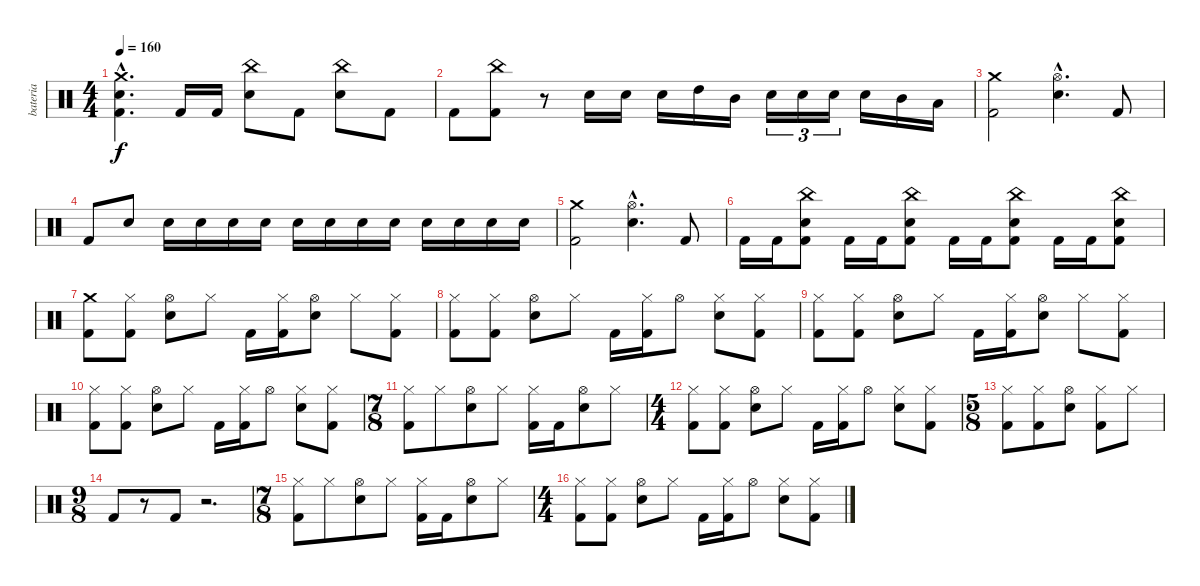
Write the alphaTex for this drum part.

\track ("bateria" "bateria") {instrument percussion}
\staff {score}
\articulation defaults
\ts (4 4)
\tempo 160
\clef neutral
\ks c
("Crash medium (hit)"{hac} "Electric Snare (hit)"{hac} "Kick (hit) 2"{hac}).4{d dy f} "Kick (hit) 2".16 "Kick (hit) 2".16 ("China (hit)" "Electric Snare (hit)").8 "Kick (hit) 2".8 ("China (hit)" "Electric Snare (hit)").8 "Kick (hit) 2".8 |
"Kick (hit) 2".8 ("China (hit)" "Kick (hit) 2").8 r.8 "Electric Snare (hit)".16 "Electric Snare (hit)".16 "Electric Snare (hit)".16 "High Tom (hit)".16 "Mid Tom (hit)".16 "Electric Snare (hit)".16{tu (3 2)} "Electric Snare (hit)".16{tu (3 2)} "Electric Snare (hit)".16{tu (3 2)} "Electric Snare (hit)".16 "Mid Tom (hit)".16 "Low Tom (hit)".16 |
("Crash medium (hit)" "Kick (hit) 2").2 ("Hi-Hat (open)"{hac} "Electric Snare (hit)"{hac}).4{d} "Kick (hit) 2".8 |
"Kick (hit) 2".8 "Electric Snare (hit)".8 "Electric Snare (hit)".16 "Electric Snare (hit)".16{volume 10} "Electric Snare (hit)".16 "Electric Snare (hit)".16{volume 15} "Electric Snare (hit)".16 "Electric Snare (hit)".16{volume 10} "Electric Snare (hit)".16 "Electric Snare (hit)".16{volume 15} "Electric Snare (hit)".16 "Electric Snare (hit)".16{volume 10} "Electric Snare (hit)".16 "Electric Snare (hit)".16 |
("Crash medium (hit)" "Kick (hit) 2").2{volume 15} ("Hi-Hat (open)"{hac} "Electric Snare (hit)"{hac}).4{d} "Kick (hit) 2".8 |
"Kick (hit) 2".16 "Kick (hit) 2".16 ("China (hit)" "Electric Snare (hit)" "Kick (hit) 2").8 "Kick (hit) 2".16 "Kick (hit) 2".16 ("China (hit)" "Electric Snare (hit)" "Kick (hit) 2").8 "Kick (hit) 2".16 "Kick (hit) 2".16 ("China (hit)" "Electric Snare (hit)" "Kick (hit) 2").8 "Kick (hit) 2".16 "Kick (hit) 2".16 ("China (hit)" "Electric Snare (hit)" "Kick (hit) 2").8 |
("Crash medium (hit)" "Kick (hit) 2").8 ("Hi-Hat (closed)" "Kick (hit) 2").8 ("Hi-Hat (open)" "Electric Snare (hit)").8 "Hi-Hat (closed)".8 "Kick (hit) 2".16 ("Hi-Hat (closed)" "Kick (hit) 2").16 ("Hi-Hat (open)" "Electric Snare (hit)").8 "Hi-Hat (closed)".8 ("Hi-Hat (closed)" "Kick (hit) 2").8 |
("Hi-Hat (closed)" "Kick (hit) 2").8 ("Hi-Hat (closed)" "Kick (hit) 2").8 ("Hi-Hat (open)" "Electric Snare (hit)").8 "Hi-Hat (closed)".8 "Kick (hit) 2".16 ("Hi-Hat (closed)" "Kick (hit) 2").16 "Hi-Hat (open)".8 ("Hi-Hat (closed)" "Electric Snare (hit)").8 ("Hi-Hat (closed)" "Kick (hit) 2").8 |
("Hi-Hat (closed)" "Kick (hit) 2").8 ("Hi-Hat (closed)" "Kick (hit) 2").8 ("Hi-Hat (open)" "Electric Snare (hit)").8 "Hi-Hat (closed)".8 "Kick (hit) 2".16 ("Hi-Hat (closed)" "Kick (hit) 2").16 ("Hi-Hat (open)" "Electric Snare (hit)").8 "Hi-Hat (closed)".8 ("Hi-Hat (closed)" "Kick (hit) 2").8 |
("Hi-Hat (closed)" "Kick (hit) 2").8 ("Hi-Hat (closed)" "Kick (hit) 2").8 ("Hi-Hat (open)" "Electric Snare (hit)").8 "Hi-Hat (closed)".8 "Kick (hit) 2".16 ("Hi-Hat (closed)" "Kick (hit) 2").16 "Hi-Hat (open)".8 ("Hi-Hat (closed)" "Electric Snare (hit)").8 ("Hi-Hat (closed)" "Kick (hit) 2").8 |
\ts (7 8)
("Hi-Hat (closed)" "Kick (hit) 2").8 "Hi-Hat (closed)".8 ("Hi-Hat (open)" "Electric Snare (hit)").8 "Hi-Hat (closed)".8 ("Hi-Hat (closed)" "Kick (hit) 2").16 "Kick (hit) 2".16 ("Hi-Hat (open)" "Electric Snare (hit)").8 "Hi-Hat (closed)".8 |
\ts (4 4)
("Hi-Hat (closed)" "Kick (hit) 2").8 ("Hi-Hat (closed)" "Kick (hit) 2").8 ("Hi-Hat (open)" "Electric Snare (hit)").8 "Hi-Hat (closed)".8 "Kick (hit) 2".16 ("Hi-Hat (closed)" "Kick (hit) 2").16 "Hi-Hat (open)".8 ("Hi-Hat (closed)" "Electric Snare (hit)").8 ("Hi-Hat (closed)" "Kick (hit) 2").8 |
\ts (5 8)
("Hi-Hat (closed)" "Kick (hit) 2").8 ("Hi-Hat (closed)" "Kick (hit) 2").8 ("Hi-Hat (open)" "Electric Snare (hit)").8 ("Hi-Hat (closed)" "Kick (hit) 2").8 "Hi-Hat (closed)".8 |
\ts (9 8)
"Kick (hit) 2".8 r.8 "Kick (hit) 2".8 r.2{d} |
\ts (7 8)
("Hi-Hat (closed)" "Kick (hit) 2").8 "Hi-Hat (closed)".8 ("Hi-Hat (open)" "Electric Snare (hit)").8 "Hi-Hat (closed)".8 ("Hi-Hat (closed)" "Kick (hit) 2").16 "Kick (hit) 2".16 ("Hi-Hat (open)" "Electric Snare (hit)").8 "Hi-Hat (closed)".8 |
\ts (4 4)
("Hi-Hat (closed)" "Kick (hit) 2").8 ("Hi-Hat (closed)" "Kick (hit) 2").8 ("Hi-Hat (open)" "Electric Snare (hit)").8 "Hi-Hat (closed)".8 "Kick (hit) 2".16 ("Hi-Hat (closed)" "Kick (hit) 2").16 "Hi-Hat (open)".8 ("Hi-Hat (closed)" "Electric Snare (hit)").8 ("Hi-Hat (closed)" "Kick (hit) 2").8
